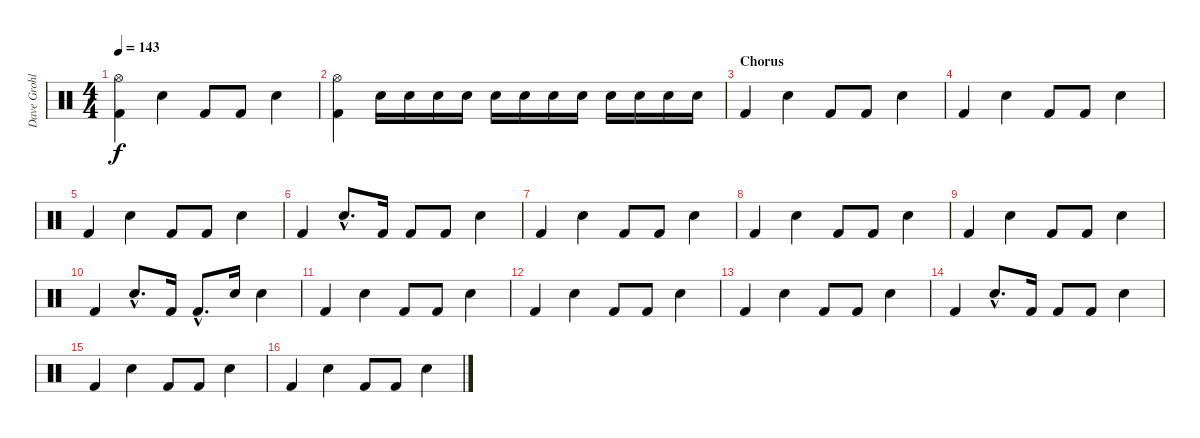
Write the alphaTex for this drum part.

\track ("Dave Grohl" "Dave Grohl") {instrument percussion}
\staff {score}
\articulation defaults
\ts (4 4)
\tempo 143
\clef neutral
\ks c
("Hi-Hat (open)" "Kick (hit) 2").4{dy f} "Snare (hit) 2".4 "Kick (hit) 2".8 "Kick (hit) 2".8 "Snare (hit) 2".4 |
("Hi-Hat (open)" "Kick (hit) 2").4 "Snare (hit) 2".16 "Snare (hit) 2".16 "Snare (hit) 2".16 "Snare (hit) 2".16 "Snare (hit) 2".16 "Snare (hit) 2".16 "Snare (hit) 2".16 "Snare (hit) 2".16 "Snare (hit) 2".16 "Snare (hit) 2".16 "Snare (hit) 2".16 "Snare (hit) 2".16 |
\section ("" "Chorus")
"Kick (hit) 2".4 "Snare (hit) 2".4 "Kick (hit) 2".8 "Kick (hit) 2".8 "Snare (hit) 2".4 |
"Kick (hit) 2".4 "Snare (hit) 2".4 "Kick (hit) 2".8 "Kick (hit) 2".8 "Snare (hit) 2".4 |
"Kick (hit) 2".4 "Snare (hit) 2".4 "Kick (hit) 2".8 "Kick (hit) 2".8 "Snare (hit) 2".4 |
"Kick (hit) 2".4 "Snare (hit) 2"{hac}.8{d} "Kick (hit) 2".16 "Kick (hit) 2".8 "Kick (hit) 2".8 "Snare (hit) 2".4 |
"Kick (hit) 2".4 "Snare (hit) 2".4 "Kick (hit) 2".8 "Kick (hit) 2".8 "Snare (hit) 2".4 |
"Kick (hit) 2".4 "Snare (hit) 2".4 "Kick (hit) 2".8 "Kick (hit) 2".8 "Snare (hit) 2".4 |
"Kick (hit) 2".4 "Snare (hit) 2".4 "Kick (hit) 2".8 "Kick (hit) 2".8 "Snare (hit) 2".4 |
"Kick (hit) 2".4 "Snare (hit) 2"{hac}.8{d} "Kick (hit) 2".16 "Kick (hit) 2"{hac}.8{d} "Snare (hit) 2".16 "Snare (hit) 2".4 |
"Kick (hit) 2".4 "Snare (hit) 2".4 "Kick (hit) 2".8 "Kick (hit) 2".8 "Snare (hit) 2".4 |
"Kick (hit) 2".4 "Snare (hit) 2".4 "Kick (hit) 2".8 "Kick (hit) 2".8 "Snare (hit) 2".4 |
"Kick (hit) 2".4 "Snare (hit) 2".4 "Kick (hit) 2".8 "Kick (hit) 2".8 "Snare (hit) 2".4 |
"Kick (hit) 2".4 "Snare (hit) 2"{hac}.8{d} "Kick (hit) 2".16 "Kick (hit) 2".8 "Kick (hit) 2".8 "Snare (hit) 2".4 |
"Kick (hit) 2".4 "Snare (hit) 2".4 "Kick (hit) 2".8 "Kick (hit) 2".8 "Snare (hit) 2".4 |
"Kick (hit) 2".4 "Snare (hit) 2".4 "Kick (hit) 2".8 "Kick (hit) 2".8 "Snare (hit) 2".4
